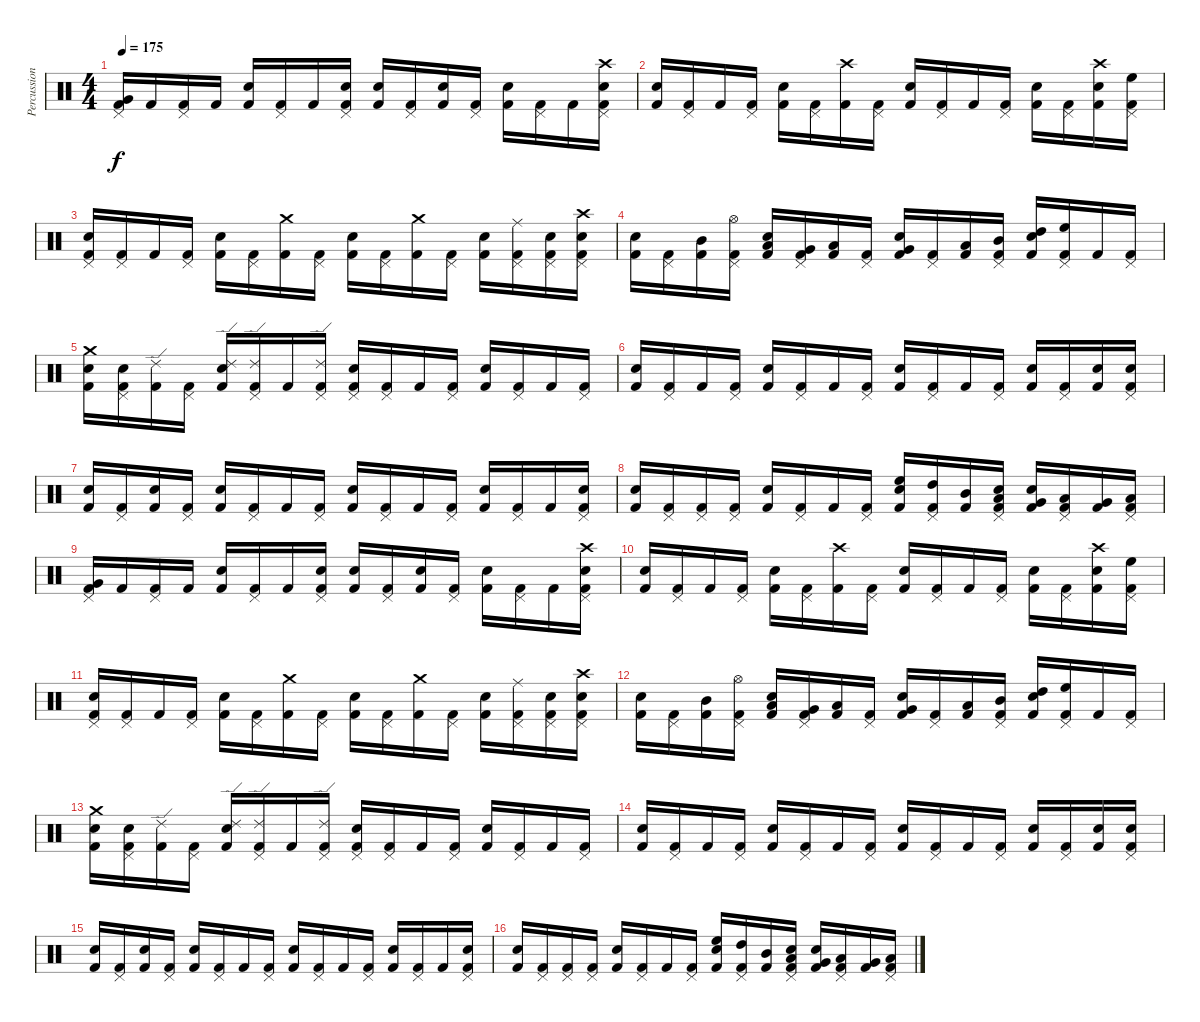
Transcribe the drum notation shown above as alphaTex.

\track ("Percussion" "Percussion") {instrument percussion}
\staff {score}
\articulation defaults
\ts (4 4)
\tempo 175
\clef neutral
\ks c
("Very Low Tom (hit)" "Pedal Hi-Hat (hit)" "Kick (hit) 2").16{dy f} "Kick (hit) 2".16 ("Pedal Hi-Hat (hit)" "Kick (hit) 2").16 "Kick (hit) 2".16 ("Snare (hit) 2" "Kick (hit) 2").16 ("Pedal Hi-Hat (hit)" "Kick (hit) 2").16 "Kick (hit) 2".16 ("Pedal Hi-Hat (hit)" "Snare (hit) 2" "Kick (hit) 2").16 ("Snare (hit) 2" "Kick (hit) 2").16 ("Pedal Hi-Hat (hit)" "Kick (hit) 2").16 ("Snare (hit) 2" "Kick (hit) 2").16 ("Pedal Hi-Hat (hit)" "Kick (hit) 2").16 ("Snare (hit) 2" "Kick (hit) 2").16 ("Pedal Hi-Hat (hit)" "Kick (hit) 2").16 "Kick (hit) 2".16 ("Crash high (hit)" "Pedal Hi-Hat (hit)" "Snare (hit) 2" "Kick (hit) 2").16 |
("Snare (hit) 2" "Kick (hit) 2").16 ("Pedal Hi-Hat (hit)" "Kick (hit) 2").16 "Kick (hit) 2".16 ("Pedal Hi-Hat (hit)" "Kick (hit) 2").16 ("Snare (hit) 2" "Kick (hit) 2").16 ("Pedal Hi-Hat (hit)" "Kick (hit) 2").16 ("Crash high (hit)" "Kick (hit) 2").16 ("Pedal Hi-Hat (hit)" "Kick (hit) 2").16 ("Snare (hit) 2" "Kick (hit) 2").16 ("Pedal Hi-Hat (hit)" "Kick (hit) 2").16 "Kick (hit) 2".16 ("Pedal Hi-Hat (hit)" "Kick (hit) 2").16 ("Snare (hit) 2" "Kick (hit) 2").16 ("Pedal Hi-Hat (hit)" "Kick (hit) 2").16 ("Crash high (hit)" "Snare (hit) 2" "Kick (hit) 2").16 ("High Floor Tom (hit)" "Pedal Hi-Hat (hit)" "Kick (hit) 2").16 |
("Pedal Hi-Hat (hit)" "Snare (hit) 2" "Kick (hit) 2").16 ("Pedal Hi-Hat (hit)" "Kick (hit) 2").16 "Kick (hit) 2".16 ("Pedal Hi-Hat (hit)" "Kick (hit) 2").16 ("Snare (hit) 2" "Kick (hit) 2").16 ("Pedal Hi-Hat (hit)" "Kick (hit) 2").16 ("Crash medium (hit)" "Kick (hit) 2").16 ("Pedal Hi-Hat (hit)" "Kick (hit) 2").16 ("Snare (hit) 2" "Kick (hit) 2").16 ("Pedal Hi-Hat (hit)" "Kick (hit) 2").16 ("Crash medium (hit)" "Kick (hit) 2").16 ("Pedal Hi-Hat (hit)" "Kick (hit) 2").16 ("Snare (hit) 2" "Kick (hit) 2").16 ("Ride (middle)" "Pedal Hi-Hat (hit)" "Kick (hit) 2").16 ("Pedal Hi-Hat (hit)" "Snare (hit) 2" "Kick (hit) 2").16 ("Crash high (hit)" "Pedal Hi-Hat (hit)" "Snare (hit) 2" "Kick (hit) 2").16 |
("Snare (hit) 2" "Kick (hit) 2").16 ("Pedal Hi-Hat (hit)" "Kick (hit) 2").16 ("Mid Tom (hit)" "Kick (hit) 2").16 ("Hi-Hat (open)" "Pedal Hi-Hat (hit)" "Kick (hit) 2").16 ("Low Tom (hit)" "Snare (hit) 2" "Kick (hit) 2").16 ("Very Low Tom (hit)" "Pedal Hi-Hat (hit)" "Kick (hit) 2").16 ("Low Floor Tom (hit)" "Kick (hit) 2").16 ("Pedal Hi-Hat (hit)" "Kick (hit) 2").16 ("Very Low Tom (hit)" "Snare (hit) 2" "Kick (hit) 2").16 ("Pedal Hi-Hat (hit)" "Kick (hit) 2").16 ("Low Tom (hit)" "Kick (hit) 2").16 ("Mid Tom (hit)" "Pedal Hi-Hat (hit)" "Kick (hit) 2").16 ("High Tom (hit)" "Snare (hit) 2" "Kick (hit) 2").16 ("High Floor Tom (hit)" "Pedal Hi-Hat (hit)" "Kick (hit) 2").16 "Kick (hit) 2".16 ("Pedal Hi-Hat (hit)" "Kick (hit) 2").16 |
("Crash medium (hit)" "Snare (hit) 2" "Kick (hit) 2").16 ("Pedal Hi-Hat (hit)" "Snare (hit) 2" "Kick (hit) 2").16 ("Ride (edge) 2" "Kick (hit) 2").16 ("Pedal Hi-Hat (hit)" "Kick (hit) 2").16 ("Ride (edge) 2" "Snare (hit) 2" "Kick (hit) 2").16 ("Ride (edge) 2" "Pedal Hi-Hat (hit)" "Kick (hit) 2").16 "Kick (hit) 2".16 ("Ride (edge) 2" "Pedal Hi-Hat (hit)" "Kick (hit) 2").16 ("Pedal Hi-Hat (hit)" "Snare (hit) 2" "Kick (hit) 2").16 ("Pedal Hi-Hat (hit)" "Kick (hit) 2").16 "Kick (hit) 2".16 ("Pedal Hi-Hat (hit)" "Kick (hit) 2").16 ("Snare (hit) 2" "Kick (hit) 2").16 ("Pedal Hi-Hat (hit)" "Kick (hit) 2").16 "Kick (hit) 2".16 ("Pedal Hi-Hat (hit)" "Kick (hit) 2").16 |
("Snare (hit) 2" "Kick (hit) 2").16 ("Pedal Hi-Hat (hit)" "Kick (hit) 2").16 "Kick (hit) 2".16 ("Pedal Hi-Hat (hit)" "Kick (hit) 2").16 ("Snare (hit) 2" "Kick (hit) 2").16 ("Pedal Hi-Hat (hit)" "Kick (hit) 2").16 "Kick (hit) 2".16 ("Pedal Hi-Hat (hit)" "Kick (hit) 2").16 ("Snare (hit) 2" "Kick (hit) 2").16 ("Pedal Hi-Hat (hit)" "Kick (hit) 2").16 "Kick (hit) 2".16 ("Pedal Hi-Hat (hit)" "Kick (hit) 2").16 ("Snare (hit) 2" "Kick (hit) 2").16 ("Pedal Hi-Hat (hit)" "Kick (hit) 2").16 ("Snare (hit) 2" "Kick (hit) 2").16 ("Pedal Hi-Hat (hit)" "Snare (hit) 2" "Kick (hit) 2").16 |
("Snare (hit) 2" "Kick (hit) 2").16 ("Pedal Hi-Hat (hit)" "Kick (hit) 2").16 ("Snare (hit) 2" "Kick (hit) 2").16 ("Pedal Hi-Hat (hit)" "Kick (hit) 2").16 ("Snare (hit) 2" "Kick (hit) 2").16 ("Pedal Hi-Hat (hit)" "Kick (hit) 2").16 "Kick (hit) 2".16 ("Pedal Hi-Hat (hit)" "Kick (hit) 2").16 ("Snare (hit) 2" "Kick (hit) 2").16 ("Pedal Hi-Hat (hit)" "Kick (hit) 2").16 "Kick (hit) 2".16 ("Pedal Hi-Hat (hit)" "Kick (hit) 2").16 ("Snare (hit) 2" "Kick (hit) 2").16 ("Pedal Hi-Hat (hit)" "Kick (hit) 2").16 "Kick (hit) 2".16 ("Pedal Hi-Hat (hit)" "Snare (hit) 2" "Kick (hit) 2").16 |
("Snare (hit) 2" "Kick (hit) 2").16 ("Pedal Hi-Hat (hit)" "Kick (hit) 2").16 ("Pedal Hi-Hat (hit)" "Kick (hit) 2").16 ("Pedal Hi-Hat (hit)" "Kick (hit) 2").16 ("Snare (hit) 2" "Kick (hit) 2").16 ("Pedal Hi-Hat (hit)" "Kick (hit) 2").16 "Kick (hit) 2".16 ("Pedal Hi-Hat (hit)" "Kick (hit) 2").16 ("High Floor Tom (hit)" "Snare (hit) 2" "Kick (hit) 2").16 ("High Tom (hit)" "Pedal Hi-Hat (hit)" "Kick (hit) 2").16 ("Mid Tom (hit)" "Kick (hit) 2").16 ("Low Tom (hit)" "Pedal Hi-Hat (hit)" "Snare (hit) 2" "Kick (hit) 2").16 ("Very Low Tom (hit)" "Snare (hit) 2" "Kick (hit) 2").16 ("Low Floor Tom (hit)" "Pedal Hi-Hat (hit)" "Kick (hit) 2").16 ("Very Low Tom (hit)" "Kick (hit) 2").16 ("Low Tom (hit)" "Pedal Hi-Hat (hit)" "Kick (hit) 2").16 |
("Very Low Tom (hit)" "Pedal Hi-Hat (hit)" "Kick (hit) 2").16 "Kick (hit) 2".16 ("Pedal Hi-Hat (hit)" "Kick (hit) 2").16 "Kick (hit) 2".16 ("Snare (hit) 2" "Kick (hit) 2").16 ("Pedal Hi-Hat (hit)" "Kick (hit) 2").16 "Kick (hit) 2".16 ("Pedal Hi-Hat (hit)" "Snare (hit) 2" "Kick (hit) 2").16 ("Snare (hit) 2" "Kick (hit) 2").16 ("Pedal Hi-Hat (hit)" "Kick (hit) 2").16 ("Snare (hit) 2" "Kick (hit) 2").16 ("Pedal Hi-Hat (hit)" "Kick (hit) 2").16 ("Snare (hit) 2" "Kick (hit) 2").16 ("Pedal Hi-Hat (hit)" "Kick (hit) 2").16 "Kick (hit) 2".16 ("Crash high (hit)" "Pedal Hi-Hat (hit)" "Snare (hit) 2" "Kick (hit) 2").16 |
("Snare (hit) 2" "Kick (hit) 2").16 ("Pedal Hi-Hat (hit)" "Kick (hit) 2").16 "Kick (hit) 2".16 ("Pedal Hi-Hat (hit)" "Kick (hit) 2").16 ("Snare (hit) 2" "Kick (hit) 2").16 ("Pedal Hi-Hat (hit)" "Kick (hit) 2").16 ("Crash high (hit)" "Kick (hit) 2").16 ("Pedal Hi-Hat (hit)" "Kick (hit) 2").16 ("Snare (hit) 2" "Kick (hit) 2").16 ("Pedal Hi-Hat (hit)" "Kick (hit) 2").16 "Kick (hit) 2".16 ("Pedal Hi-Hat (hit)" "Kick (hit) 2").16 ("Snare (hit) 2" "Kick (hit) 2").16 ("Pedal Hi-Hat (hit)" "Kick (hit) 2").16 ("Crash high (hit)" "Snare (hit) 2" "Kick (hit) 2").16 ("High Floor Tom (hit)" "Pedal Hi-Hat (hit)" "Kick (hit) 2").16 |
("Pedal Hi-Hat (hit)" "Snare (hit) 2" "Kick (hit) 2").16 ("Pedal Hi-Hat (hit)" "Kick (hit) 2").16 "Kick (hit) 2".16 ("Pedal Hi-Hat (hit)" "Kick (hit) 2").16 ("Snare (hit) 2" "Kick (hit) 2").16 ("Pedal Hi-Hat (hit)" "Kick (hit) 2").16 ("Crash medium (hit)" "Kick (hit) 2").16 ("Pedal Hi-Hat (hit)" "Kick (hit) 2").16 ("Snare (hit) 2" "Kick (hit) 2").16 ("Pedal Hi-Hat (hit)" "Kick (hit) 2").16 ("Crash medium (hit)" "Kick (hit) 2").16 ("Pedal Hi-Hat (hit)" "Kick (hit) 2").16 ("Snare (hit) 2" "Kick (hit) 2").16 ("Ride (middle)" "Pedal Hi-Hat (hit)" "Kick (hit) 2").16 ("Pedal Hi-Hat (hit)" "Snare (hit) 2" "Kick (hit) 2").16 ("Crash high (hit)" "Pedal Hi-Hat (hit)" "Snare (hit) 2" "Kick (hit) 2").16 |
("Snare (hit) 2" "Kick (hit) 2").16 ("Pedal Hi-Hat (hit)" "Kick (hit) 2").16 ("Mid Tom (hit)" "Kick (hit) 2").16 ("Hi-Hat (open)" "Pedal Hi-Hat (hit)" "Kick (hit) 2").16 ("Low Tom (hit)" "Snare (hit) 2" "Kick (hit) 2").16 ("Very Low Tom (hit)" "Pedal Hi-Hat (hit)" "Kick (hit) 2").16 ("Low Floor Tom (hit)" "Kick (hit) 2").16 ("Pedal Hi-Hat (hit)" "Kick (hit) 2").16 ("Very Low Tom (hit)" "Snare (hit) 2" "Kick (hit) 2").16 ("Pedal Hi-Hat (hit)" "Kick (hit) 2").16 ("Low Tom (hit)" "Kick (hit) 2").16 ("Mid Tom (hit)" "Pedal Hi-Hat (hit)" "Kick (hit) 2").16 ("High Tom (hit)" "Snare (hit) 2" "Kick (hit) 2").16 ("High Floor Tom (hit)" "Pedal Hi-Hat (hit)" "Kick (hit) 2").16 "Kick (hit) 2".16 ("Pedal Hi-Hat (hit)" "Kick (hit) 2").16 |
("Crash medium (hit)" "Snare (hit) 2" "Kick (hit) 2").16 ("Pedal Hi-Hat (hit)" "Snare (hit) 2" "Kick (hit) 2").16 ("Ride (edge) 2" "Kick (hit) 2").16 ("Pedal Hi-Hat (hit)" "Kick (hit) 2").16 ("Ride (edge) 2" "Snare (hit) 2" "Kick (hit) 2").16 ("Ride (edge) 2" "Pedal Hi-Hat (hit)" "Kick (hit) 2").16 "Kick (hit) 2".16 ("Ride (edge) 2" "Pedal Hi-Hat (hit)" "Kick (hit) 2").16 ("Pedal Hi-Hat (hit)" "Snare (hit) 2" "Kick (hit) 2").16 ("Pedal Hi-Hat (hit)" "Kick (hit) 2").16 "Kick (hit) 2".16 ("Pedal Hi-Hat (hit)" "Kick (hit) 2").16 ("Snare (hit) 2" "Kick (hit) 2").16 ("Pedal Hi-Hat (hit)" "Kick (hit) 2").16 "Kick (hit) 2".16 ("Pedal Hi-Hat (hit)" "Kick (hit) 2").16 |
("Snare (hit) 2" "Kick (hit) 2").16 ("Pedal Hi-Hat (hit)" "Kick (hit) 2").16 "Kick (hit) 2".16 ("Pedal Hi-Hat (hit)" "Kick (hit) 2").16 ("Snare (hit) 2" "Kick (hit) 2").16 ("Pedal Hi-Hat (hit)" "Kick (hit) 2").16 "Kick (hit) 2".16 ("Pedal Hi-Hat (hit)" "Kick (hit) 2").16 ("Snare (hit) 2" "Kick (hit) 2").16 ("Pedal Hi-Hat (hit)" "Kick (hit) 2").16 "Kick (hit) 2".16 ("Pedal Hi-Hat (hit)" "Kick (hit) 2").16 ("Snare (hit) 2" "Kick (hit) 2").16 ("Pedal Hi-Hat (hit)" "Kick (hit) 2").16 ("Snare (hit) 2" "Kick (hit) 2").16 ("Pedal Hi-Hat (hit)" "Snare (hit) 2" "Kick (hit) 2").16 |
("Snare (hit) 2" "Kick (hit) 2").16 ("Pedal Hi-Hat (hit)" "Kick (hit) 2").16 ("Snare (hit) 2" "Kick (hit) 2").16 ("Pedal Hi-Hat (hit)" "Kick (hit) 2").16 ("Snare (hit) 2" "Kick (hit) 2").16 ("Pedal Hi-Hat (hit)" "Kick (hit) 2").16 "Kick (hit) 2".16 ("Pedal Hi-Hat (hit)" "Kick (hit) 2").16 ("Snare (hit) 2" "Kick (hit) 2").16 ("Pedal Hi-Hat (hit)" "Kick (hit) 2").16 "Kick (hit) 2".16 ("Pedal Hi-Hat (hit)" "Kick (hit) 2").16 ("Snare (hit) 2" "Kick (hit) 2").16 ("Pedal Hi-Hat (hit)" "Kick (hit) 2").16 "Kick (hit) 2".16 ("Pedal Hi-Hat (hit)" "Snare (hit) 2" "Kick (hit) 2").16 |
("Snare (hit) 2" "Kick (hit) 2").16 ("Pedal Hi-Hat (hit)" "Kick (hit) 2").16 ("Pedal Hi-Hat (hit)" "Kick (hit) 2").16 ("Pedal Hi-Hat (hit)" "Kick (hit) 2").16 ("Snare (hit) 2" "Kick (hit) 2").16 ("Pedal Hi-Hat (hit)" "Kick (hit) 2").16 "Kick (hit) 2".16 ("Pedal Hi-Hat (hit)" "Kick (hit) 2").16 ("High Floor Tom (hit)" "Snare (hit) 2" "Kick (hit) 2").16 ("High Tom (hit)" "Pedal Hi-Hat (hit)" "Kick (hit) 2").16 ("Mid Tom (hit)" "Kick (hit) 2").16 ("Low Tom (hit)" "Pedal Hi-Hat (hit)" "Snare (hit) 2" "Kick (hit) 2").16 ("Very Low Tom (hit)" "Snare (hit) 2" "Kick (hit) 2").16 ("Low Floor Tom (hit)" "Pedal Hi-Hat (hit)" "Kick (hit) 2").16 ("Very Low Tom (hit)" "Kick (hit) 2").16 ("Low Tom (hit)" "Pedal Hi-Hat (hit)" "Kick (hit) 2").16
